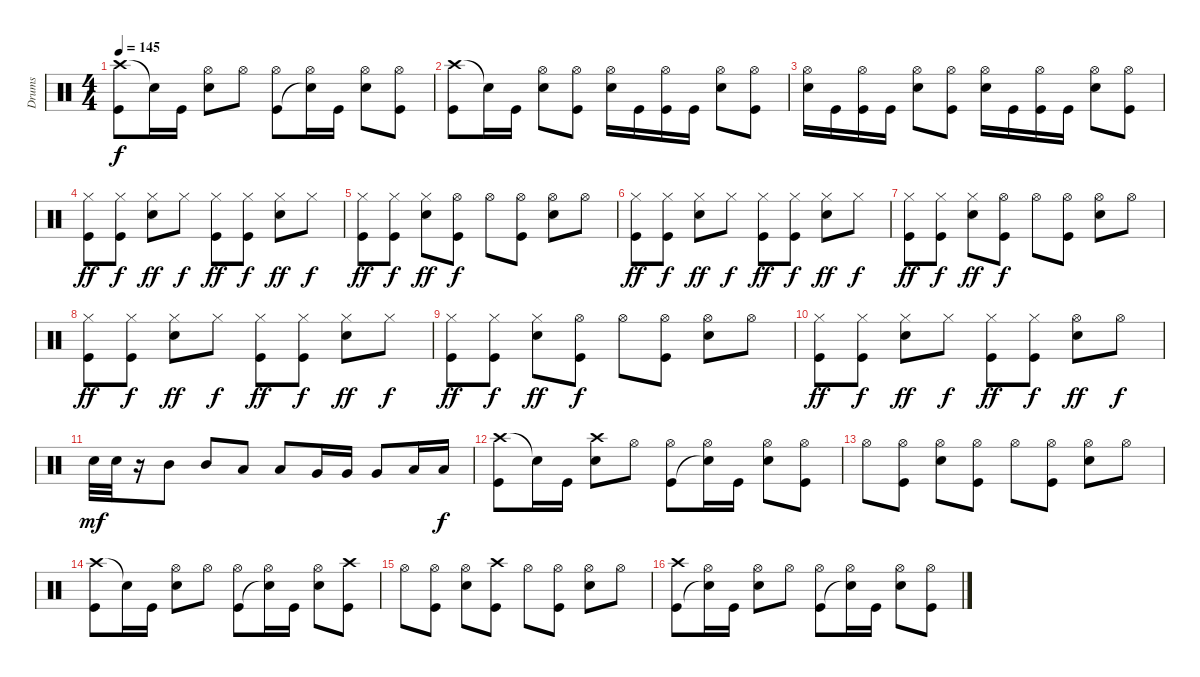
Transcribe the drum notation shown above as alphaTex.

\track ("Drums" "Drums") {instrument percussion}
\staff {score}
\articulation defaults
\ts (4 4)
\tempo 145
\clef neutral
\ks c
("Crash high (hit)" "Kick (hit)").8{dy f} "Snare (hit) 2"{t}.16 "Kick (hit)".16 ("Hi-Hat (open)" "Snare (hit) 2").8 "Hi-Hat (open)".8 ("Hi-Hat (open)" "Kick (hit)").8 ("Hi-Hat (open)" "Snare (hit)"{t}).16 "Kick (hit)".16 ("Hi-Hat (open)" "Snare (hit) 2").8 ("Hi-Hat (open)" "Kick (hit)").8 |
("Crash high (hit)" "Kick (hit)").8 "Snare (hit)"{t}.16 "Kick (hit)".16 ("Hi-Hat (open)" "Snare (hit) 2").8 ("Hi-Hat (open)" "Kick (hit)").8 ("Hi-Hat (open)" "Snare (hit) 2").16 "Kick (hit)".16 ("Hi-Hat (open)" "Kick (hit)").16 "Kick (hit)".16 ("Hi-Hat (open)" "Snare (hit) 2").8 ("Hi-Hat (open)" "Kick (hit)").8 |
("Hi-Hat (open)" "Snare (hit) 2").16 "Kick (hit)".16 ("Hi-Hat (open)" "Kick (hit)").16 "Kick (hit)".16 ("Hi-Hat (open)" "Snare (hit) 2").8 ("Hi-Hat (open)" "Kick (hit)").8 ("Hi-Hat (open)" "Snare (hit) 2").16 "Kick (hit)".16 ("Hi-Hat (open)" "Kick (hit)").16 "Kick (hit)".16 ("Hi-Hat (open)" "Snare (hit) 2").8 ("Hi-Hat (open)" "Kick (hit)").8 |
("Hi-Hat (closed)" "Kick (hit)").8{dy ff} ("Hi-Hat (closed)" "Kick (hit)").8{dy f} ("Hi-Hat (closed)" "Snare (hit) 2").8{dy ff} "Hi-Hat (closed)".8{dy f} ("Hi-Hat (closed)" "Kick (hit)").8{dy ff} ("Hi-Hat (closed)" "Kick (hit)").8{dy f} ("Hi-Hat (closed)" "Snare (hit) 2").8{dy ff} "Hi-Hat (closed)".8{dy f} |
("Hi-Hat (closed)" "Kick (hit)").8{dy ff} ("Hi-Hat (closed)" "Kick (hit)").8{dy f} ("Hi-Hat (closed)" "Snare (hit) 2").8{dy ff} ("Hi-Hat (open)" "Kick (hit)").8{dy f} "Hi-Hat (open)".8 ("Hi-Hat (open)" "Kick (hit)").8 ("Hi-Hat (open)" "Snare (hit) 2").8 "Hi-Hat (open)".8 |
("Hi-Hat (closed)" "Kick (hit)").8{dy ff} ("Hi-Hat (closed)" "Kick (hit)").8{dy f} ("Hi-Hat (closed)" "Snare (hit) 2").8{dy ff} "Hi-Hat (closed)".8{dy f} ("Hi-Hat (closed)" "Kick (hit)").8{dy ff} ("Hi-Hat (closed)" "Kick (hit)").8{dy f} ("Hi-Hat (closed)" "Snare (hit) 2").8{dy ff} "Hi-Hat (closed)".8{dy f} |
("Hi-Hat (closed)" "Kick (hit)").8{dy ff} ("Hi-Hat (closed)" "Kick (hit)").8{dy f} ("Hi-Hat (closed)" "Snare (hit) 2").8{dy ff} ("Hi-Hat (open)" "Kick (hit)").8{dy f} "Hi-Hat (open)".8 ("Hi-Hat (open)" "Kick (hit)").8 ("Hi-Hat (open)" "Snare (hit) 2").8 "Hi-Hat (open)".8 |
("Hi-Hat (closed)" "Kick (hit)").8{dy ff} ("Hi-Hat (closed)" "Kick (hit)").8{dy f} ("Hi-Hat (closed)" "Snare (hit) 2").8{dy ff} "Hi-Hat (closed)".8{dy f} ("Hi-Hat (closed)" "Kick (hit)").8{dy ff} ("Hi-Hat (closed)" "Kick (hit)").8{dy f} ("Hi-Hat (closed)" "Snare (hit) 2").8{dy ff} "Hi-Hat (closed)".8{dy f} |
("Hi-Hat (closed)" "Kick (hit)").8{dy ff} ("Hi-Hat (closed)" "Kick (hit)").8{dy f} ("Hi-Hat (closed)" "Snare (hit) 2").8{dy ff} ("Hi-Hat (open)" "Kick (hit)").8{dy f} "Hi-Hat (open)".8 ("Hi-Hat (open)" "Kick (hit)").8 ("Hi-Hat (open)" "Snare (hit) 2").8 "Hi-Hat (open)".8 |
("Hi-Hat (closed)" "Kick (hit)").8{dy ff} ("Hi-Hat (closed)" "Kick (hit)").8{dy f} ("Hi-Hat (closed)" "Snare (hit) 2").8{dy ff} "Hi-Hat (closed)".8{dy f} ("Hi-Hat (closed)" "Kick (hit)").8{dy ff} ("Hi-Hat (closed)" "Kick (hit)").8{dy f} ("Hi-Hat (open)" "Snare (hit) 2").8{dy ff} "Hi-Hat (open)".8{dy f} |
"Snare (hit) 2".32{dy mf} "Snare (hit) 2".32 r.16 "Mid Tom (hit)".8 "Mid Tom (hit)".8 "Low Tom (hit)".8 "Low Tom (hit)".8 "Very Low Tom (hit)".16 "Very Low Tom (hit)".16 "Very Low Tom (hit)".8 "Low Floor Tom (hit)".16 "Low Floor Tom (hit)".16{dy f} |
("Crash high (hit)" "Kick (hit)").8 "Snare (hit) 2"{t}.16 "Kick (hit)".16 ("Crash high (hit)" "Snare (hit) 2").8 "Hi-Hat (open)".8 ("Hi-Hat (open)" "Kick (hit)").8 ("Hi-Hat (open)" "Snare (hit)"{t}).16 "Kick (hit)".16 ("Hi-Hat (open)" "Snare (hit) 2").8 ("Hi-Hat (open)" "Kick (hit)").8 |
"Hi-Hat (open)".8 ("Hi-Hat (open)" "Kick (hit)").8 ("Hi-Hat (open)" "Snare (hit) 2").8 ("Hi-Hat (open)" "Kick (hit)").8 "Hi-Hat (open)".8 ("Hi-Hat (open)" "Kick (hit)").8 ("Hi-Hat (open)" "Snare (hit) 2").8 "Hi-Hat (open)".8 |
("Crash high (hit)" "Kick (hit)").8 "Snare (hit) 2"{t}.16 "Kick (hit)".16 ("Hi-Hat (open)" "Snare (hit) 2").8 "Hi-Hat (open)".8 ("Hi-Hat (open)" "Kick (hit)").8 ("Hi-Hat (open)" "Snare (hit)"{t}).16 "Kick (hit)".16 ("Hi-Hat (open)" "Snare (hit) 2").8 ("Crash high (hit)" "Kick (hit)").8 |
"Hi-Hat (open)".8 ("Hi-Hat (open)" "Kick (hit)").8 ("Hi-Hat (open)" "Snare (hit) 2").8 ("Crash high (hit)" "Kick (hit)").8 "Hi-Hat (open)".8 ("Hi-Hat (open)" "Kick (hit)").8 ("Hi-Hat (open)" "Snare (hit) 2").8 "Hi-Hat (open)".8 |
("Crash high (hit)" "Kick (hit)").8 ("Hi-Hat (open)" "Snare (hit) 2"{t}).16 "Kick (hit)".16 ("Hi-Hat (open)" "Snare (hit) 2").8 "Hi-Hat (open)".8 ("Hi-Hat (open)" "Kick (hit)").8 ("Hi-Hat (open)" "Snare (hit)"{t}).16 "Kick (hit)".16 ("Hi-Hat (open)" "Snare (hit) 2").8 ("Hi-Hat (open)" "Kick (hit)").8
